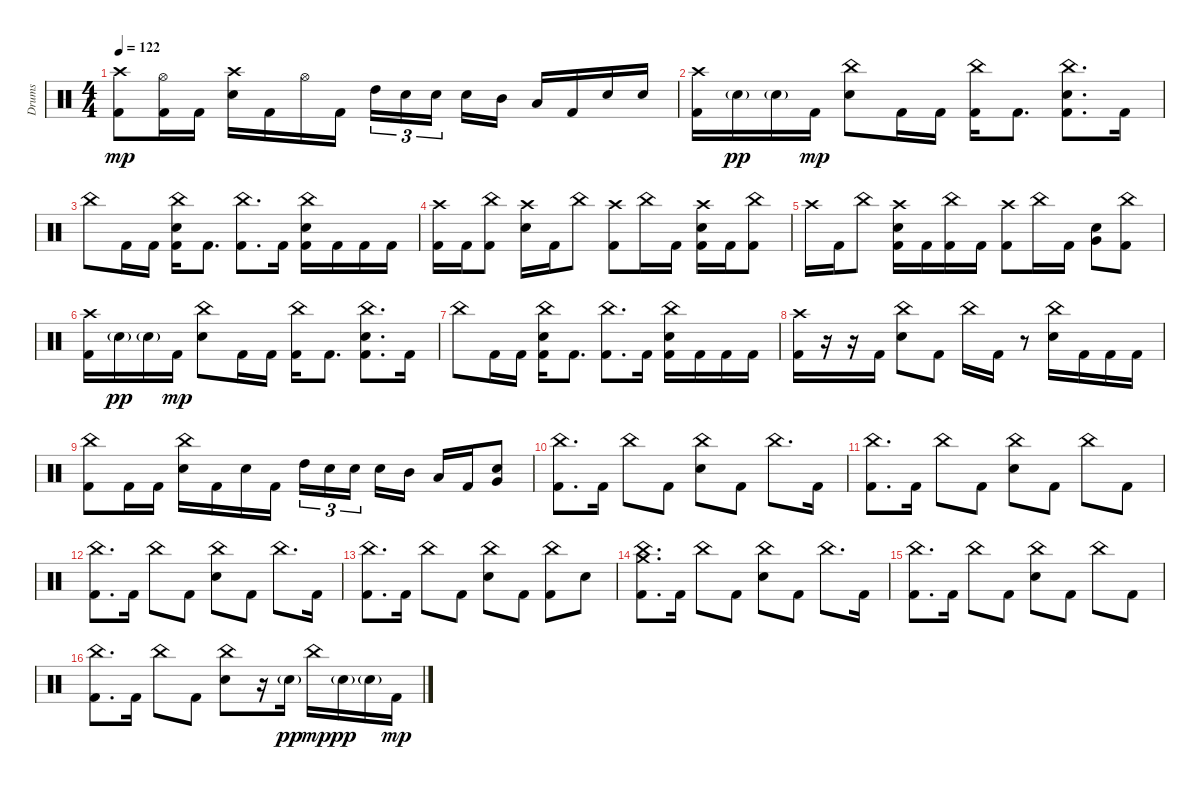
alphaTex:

\track ("Drums" "Drums") {instrument percussion}
\staff {score}
\articulation defaults
\ts (4 4)
\tempo 122
\clef neutral
\ks c
("Crash high (hit)" "Kick (hit) 2").8{dy mp} ("Hi-Hat (open)" "Kick (hit) 2").16 "Kick (hit) 2".16 ("Crash high (hit)" "Electric Snare (hit)").16 "Kick (hit) 2".16 "Hi-Hat (open)".16 "Kick (hit) 2".16 "High Tom (hit)".16{tu (3 2)} "Electric Snare (hit)".16{tu (3 2)} "Electric Snare (hit)".16{tu (3 2) beam splitsecondary} "Electric Snare (hit)".16 "Mid Tom (hit)".16 "Low Tom (hit)".16 "Kick (hit) 2".16 "Electric Snare (hit)".16 "Electric Snare (hit)".16 |
("Crash high (hit)" "Kick (hit) 2").16 "Electric Snare (hit)"{g}.16{dy pp} "Electric Snare (hit)"{g}.16 "Kick (hit) 2".16{dy mp} ("China (hit)" "Electric Snare (hit)").8 "Kick (hit) 2".16 "Kick (hit) 2".16 ("China (hit)" "Kick (hit) 2").16 "Kick (hit) 2".8{d} ("Electric Snare (hit)" "China (hit)" "Kick (hit) 2").8{d} "Kick (hit) 2".16 |
"China (hit)".8 "Kick (hit) 2".16 "Kick (hit) 2".16 ("China (hit)" "Electric Snare (hit)" "Kick (hit) 2").16 "Kick (hit) 2".8{d} ("China (hit)" "Kick (hit) 2").8{d} "Kick (hit) 2".16 ("China (hit)" "Electric Snare (hit)" "Kick (hit) 2").16 "Kick (hit) 2".16 "Kick (hit) 2".16 "Kick (hit) 2".16 |
("Crash high (hit)" "Kick (hit) 2").16 "Kick (hit) 2".16 ("China (hit)" "Kick (hit) 2").8 ("Crash high (hit)" "Electric Snare (hit)").16 "Kick (hit) 2".16 "China (hit)".8 ("Crash high (hit)" "Kick (hit) 2").8 "China (hit)".16 "Kick (hit) 2".16 ("Crash high (hit)" "Electric Snare (hit)" "Kick (hit) 2").16 "Kick (hit) 2".16 ("China (hit)" "Kick (hit) 2").8 |
"Crash high (hit)".16 "Kick (hit) 2".16 "China (hit)".8 ("Crash high (hit)" "Electric Snare (hit)" "Kick (hit) 2").16 "Kick (hit) 2".16 ("China (hit)" "Kick (hit) 2").16 "Kick (hit) 2".16 ("Crash high (hit)" "Kick (hit) 2").8 "China (hit)".16 "Kick (hit) 2".16 ("Very Low Tom (hit)" "Electric Snare (hit)").8 ("China (hit)" "Kick (hit) 2").8 |
("Crash high (hit)" "Kick (hit) 2").16 "Electric Snare (hit)"{g}.16{dy pp} "Electric Snare (hit)"{g}.16 "Kick (hit) 2".16{dy mp} ("China (hit)" "Electric Snare (hit)").8 "Kick (hit) 2".16 "Kick (hit) 2".16 ("China (hit)" "Kick (hit) 2").16 "Kick (hit) 2".8{d} ("Electric Snare (hit)" "China (hit)" "Kick (hit) 2").8{d} "Kick (hit) 2".16 |
"China (hit)".8 "Kick (hit) 2".16 "Kick (hit) 2".16 ("China (hit)" "Electric Snare (hit)" "Kick (hit) 2").16 "Kick (hit) 2".8{d} ("China (hit)" "Kick (hit) 2").8{d} "Kick (hit) 2".16 ("China (hit)" "Electric Snare (hit)" "Kick (hit) 2").16 "Kick (hit) 2".16 "Kick (hit) 2".16 "Kick (hit) 2".16 |
("Crash high (hit)" "Kick (hit) 2").16 r.16 r.16 "Kick (hit) 2".16 ("China (hit)" "Electric Snare (hit)").8 "Kick (hit) 2".8 "China (hit)".16 "Kick (hit) 2".16 r.8 ("China (hit)" "Electric Snare (hit)").16 "Kick (hit) 2".16 "Kick (hit) 2".16 "Kick (hit) 2".16 |
("China (hit)" "Kick (hit) 2").8 "Kick (hit) 2".16 "Kick (hit) 2".16 ("China (hit)" "Electric Snare (hit)").16 "Kick (hit) 2".16 "Electric Snare (hit)".16 "Kick (hit) 2".16 "High Tom (hit)".16{tu (3 2)} "Electric Snare (hit)".16{tu (3 2)} "Electric Snare (hit)".16{tu (3 2) beam splitsecondary} "Electric Snare (hit)".16 "Mid Tom (hit)".16 "Low Tom (hit)".16 "Kick (hit) 2".16 ("Electric Snare (hit)" "Very Low Tom (hit)").8 |
("China (hit)" "Kick (hit) 2").8{d} "Kick (hit) 2".16 "China (hit)".8 "Kick (hit) 2".8 ("China (hit)" "Electric Snare (hit)").8 "Kick (hit) 2".8 "China (hit)".8{d} "Kick (hit) 2".16 |
("China (hit)" "Kick (hit) 2").8{d} "Kick (hit) 2".16 "China (hit)".8 "Kick (hit) 2".8 ("China (hit)" "Electric Snare (hit)").8 "Kick (hit) 2".8 "China (hit)".8 "Kick (hit) 2".8 |
("China (hit)" "Kick (hit) 2").8{d} "Kick (hit) 2".16 "China (hit)".8 "Kick (hit) 2".8 ("China (hit)" "Electric Snare (hit)").8 "Kick (hit) 2".8 "China (hit)".8{d} "Kick (hit) 2".16 |
("China (hit)" "Kick (hit) 2").8{d} "Kick (hit) 2".16 "China (hit)".8 "Kick (hit) 2".8 ("China (hit)" "Electric Snare (hit)").8 "Kick (hit) 2".8 ("China (hit)" "Kick (hit) 2").8 "Electric Snare (hit)".8 |
("China (hit)" "Crash medium (hit)" "Kick (hit) 2").8{d} "Kick (hit) 2".16 "China (hit)".8 "Kick (hit) 2".8 ("China (hit)" "Electric Snare (hit)").8 "Kick (hit) 2".8 "China (hit)".8{d} "Kick (hit) 2".16 |
("China (hit)" "Kick (hit) 2").8{d} "Kick (hit) 2".16 "China (hit)".8 "Kick (hit) 2".8 ("China (hit)" "Electric Snare (hit)").8 "Kick (hit) 2".8 "China (hit)".8 "Kick (hit) 2".8 |
("China (hit)" "Kick (hit) 2").8{d} "Kick (hit) 2".16 "China (hit)".8 "Kick (hit) 2".8 ("China (hit)" "Electric Snare (hit)").8 r.16 "Electric Snare (hit)"{g}.16{dy pp} "China (hit)".16{dy mp} "Electric Snare (hit)"{g}.16{dy pp} "Electric Snare (hit)"{g}.16 "Kick (hit) 2".16{dy mp}
